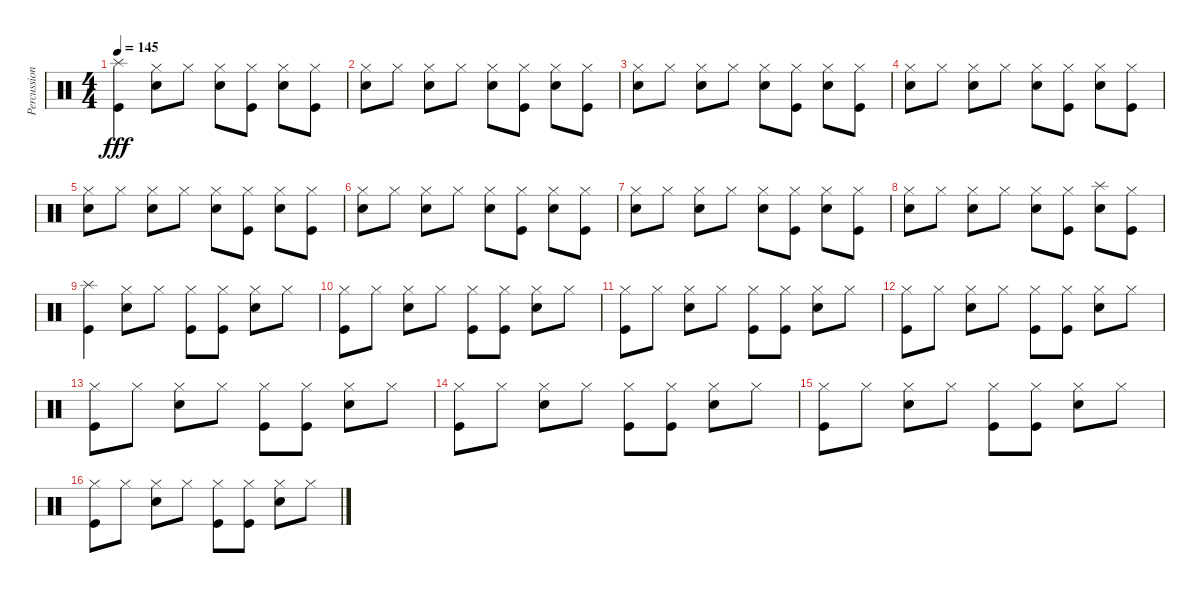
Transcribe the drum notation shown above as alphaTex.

\track ("Percussion" "Percussion") {instrument percussion}
\staff {score}
\articulation defaults
\ts (4 4)
\tempo 145
\clef neutral
\ks c
("Splash (hit)" "Kick (hit)").4{dy fff} ("Hi-Hat (closed)" "Snare (hit) 2").8 "Hi-Hat (closed)".8 ("Hi-Hat (closed)" "Snare (hit) 2").8 ("Hi-Hat (closed)" "Kick (hit)").8 ("Hi-Hat (closed)" "Snare (hit) 2").8 ("Hi-Hat (closed)" "Kick (hit)").8 |
("Hi-Hat (closed)" "Snare (hit) 2").8 "Hi-Hat (closed)".8 ("Hi-Hat (closed)" "Snare (hit) 2").8 "Hi-Hat (closed)".8 ("Hi-Hat (closed)" "Snare (hit) 2").8 ("Hi-Hat (closed)" "Kick (hit)").8 ("Hi-Hat (closed)" "Snare (hit) 2").8 ("Hi-Hat (closed)" "Kick (hit)").8 |
("Hi-Hat (closed)" "Snare (hit) 2").8 "Hi-Hat (closed)".8 ("Hi-Hat (closed)" "Snare (hit) 2").8 "Hi-Hat (closed)".8 ("Hi-Hat (closed)" "Snare (hit) 2").8 ("Hi-Hat (closed)" "Kick (hit)").8 ("Hi-Hat (closed)" "Snare (hit) 2").8 ("Hi-Hat (closed)" "Kick (hit)").8 |
("Hi-Hat (closed)" "Snare (hit) 2").8 "Hi-Hat (closed)".8 ("Hi-Hat (closed)" "Snare (hit) 2").8 "Hi-Hat (closed)".8 ("Hi-Hat (closed)" "Snare (hit) 2").8 ("Hi-Hat (closed)" "Kick (hit)").8 ("Hi-Hat (closed)" "Snare (hit) 2").8 ("Hi-Hat (closed)" "Kick (hit)").8 |
("Hi-Hat (closed)" "Snare (hit) 2").8 "Hi-Hat (closed)".8 ("Hi-Hat (closed)" "Snare (hit) 2").8 "Hi-Hat (closed)".8 ("Hi-Hat (closed)" "Snare (hit) 2").8 ("Hi-Hat (closed)" "Kick (hit)").8 ("Hi-Hat (closed)" "Snare (hit) 2").8 ("Hi-Hat (closed)" "Kick (hit)").8 |
("Hi-Hat (closed)" "Snare (hit) 2").8 "Hi-Hat (closed)".8 ("Hi-Hat (closed)" "Snare (hit) 2").8 "Hi-Hat (closed)".8 ("Hi-Hat (closed)" "Snare (hit) 2").8 ("Hi-Hat (closed)" "Kick (hit)").8 ("Hi-Hat (closed)" "Snare (hit) 2").8 ("Hi-Hat (closed)" "Kick (hit)").8 |
("Hi-Hat (closed)" "Snare (hit) 2").8 "Hi-Hat (closed)".8 ("Hi-Hat (closed)" "Snare (hit) 2").8 "Hi-Hat (closed)".8 ("Hi-Hat (closed)" "Snare (hit) 2").8 ("Hi-Hat (closed)" "Kick (hit)").8 ("Hi-Hat (closed)" "Snare (hit) 2").8 ("Hi-Hat (closed)" "Kick (hit)").8 |
("Hi-Hat (closed)" "Snare (hit) 2").8 "Hi-Hat (closed)".8 ("Hi-Hat (closed)" "Snare (hit) 2").8 "Hi-Hat (closed)".8 ("Hi-Hat (closed)" "Snare (hit) 2").8 ("Hi-Hat (closed)" "Kick (hit)").8 ("Splash (hit)" "Snare (hit) 2").8 ("Hi-Hat (closed)" "Kick (hit)").8 |
("Splash (hit)" "Kick (hit)").4 ("Hi-Hat (closed)" "Snare (hit) 2").8 "Hi-Hat (closed)".8 ("Hi-Hat (closed)" "Kick (hit)").8 ("Hi-Hat (closed)" "Kick (hit)").8 ("Hi-Hat (closed)" "Snare (hit) 2").8 "Hi-Hat (closed)".8 |
("Hi-Hat (closed)" "Kick (hit)").8 "Hi-Hat (closed)".8 ("Hi-Hat (closed)" "Snare (hit) 2").8 "Hi-Hat (closed)".8 ("Hi-Hat (closed)" "Kick (hit)").8 ("Hi-Hat (closed)" "Kick (hit)").8 ("Hi-Hat (closed)" "Snare (hit) 2").8 "Hi-Hat (closed)".8 |
("Hi-Hat (closed)" "Kick (hit)").8 "Hi-Hat (closed)".8 ("Hi-Hat (closed)" "Snare (hit) 2").8 "Hi-Hat (closed)".8 ("Hi-Hat (closed)" "Kick (hit)").8 ("Hi-Hat (closed)" "Kick (hit)").8 ("Hi-Hat (closed)" "Snare (hit) 2").8 "Hi-Hat (closed)".8 |
("Hi-Hat (closed)" "Kick (hit)").8 "Hi-Hat (closed)".8 ("Hi-Hat (closed)" "Snare (hit) 2").8 "Hi-Hat (closed)".8 ("Hi-Hat (closed)" "Kick (hit)").8 ("Hi-Hat (closed)" "Kick (hit)").8 ("Hi-Hat (closed)" "Snare (hit) 2").8 "Hi-Hat (closed)".8 |
("Hi-Hat (closed)" "Kick (hit)").8 "Hi-Hat (closed)".8 ("Hi-Hat (closed)" "Snare (hit) 2").8 "Hi-Hat (closed)".8 ("Hi-Hat (closed)" "Kick (hit)").8 ("Hi-Hat (closed)" "Kick (hit)").8 ("Hi-Hat (closed)" "Snare (hit) 2").8 "Hi-Hat (closed)".8 |
("Hi-Hat (closed)" "Kick (hit)").8 "Hi-Hat (closed)".8 ("Hi-Hat (closed)" "Snare (hit) 2").8 "Hi-Hat (closed)".8 ("Hi-Hat (closed)" "Kick (hit)").8 ("Hi-Hat (closed)" "Kick (hit)").8 ("Hi-Hat (closed)" "Snare (hit) 2").8 "Hi-Hat (closed)".8 |
("Hi-Hat (closed)" "Kick (hit)").8 "Hi-Hat (closed)".8 ("Hi-Hat (closed)" "Snare (hit) 2").8 "Hi-Hat (closed)".8 ("Hi-Hat (closed)" "Kick (hit)").8 ("Hi-Hat (closed)" "Kick (hit)").8 ("Hi-Hat (closed)" "Snare (hit) 2").8 "Hi-Hat (closed)".8 |
("Hi-Hat (closed)" "Kick (hit)").8 "Hi-Hat (closed)".8 ("Hi-Hat (closed)" "Snare (hit) 2").8 "Hi-Hat (closed)".8 ("Hi-Hat (closed)" "Kick (hit)").8 ("Hi-Hat (closed)" "Kick (hit)").8 ("Hi-Hat (closed)" "Snare (hit) 2").8 "Hi-Hat (closed)".8
